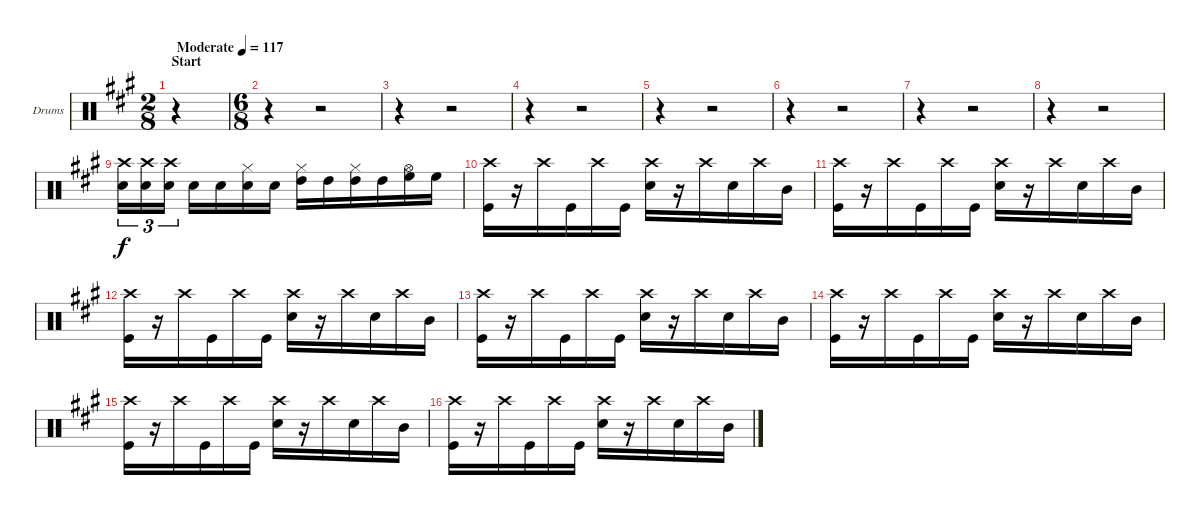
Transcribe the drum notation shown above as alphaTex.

\bracketExtendMode groupsimilarinstruments
\firstSystemTrackNameOrientation horizontal
\otherSystemsTrackNameOrientation horizontal
\track ("Drumkit" "Drums") {instrument percussion}
\staff {score}
\articulation defaults
\voice
\ts (2 8)
\beaming (8 3 3)
\section ("" "Start")
\tempo (117 "Moderate")
\clef neutral
\ks a
r.4{dy f} |
\ts (6 8)
\beaming (8 3 3)
r.4 r.2 |
r.4 r.2 |
r.4 r.2 |
r.4 r.2 |
r.4 r.2 |
r.4 r.2 |
r.4 r.2 |
("Crash high (hit)" "Snare (hit) 2").16{tu (3 2)} ("Crash high (hit)" "Snare (hit) 2").16{tu (3 2)} ("Crash high (hit)" "Snare (hit) 2").16{tu (3 2)} "Snare (hit) 2".16 "Snare (hit) 2".16 ("Hi-Hat (closed)" "Snare (hit) 2").16 "Snare (hit) 2".16 ("Hi-Hat (closed)" "High Tom (hit)").16 "High Tom (hit)".16 ("Hi-Hat (closed)" "High Tom (hit)").16 "High Tom (hit)".16 ("Hi-Hat (open)" "High Floor Tom (hit)").16 "High Floor Tom (hit)".16 |
("Crash high (hit)" "Kick (hit)").16 r.16 "Crash high (hit)".16 "Kick (hit)".16 "Crash high (hit)".16 "Kick (hit)".16 ("Crash high (hit)" "Snare (hit) 2").16 r.16 "Crash high (hit)".16 "Snare (hit) 2".16 "Crash high (hit)".16 "Mid Tom (hit)".16 |
("Crash high (hit)" "Kick (hit)").16 r.16 "Crash high (hit)".16 "Kick (hit)".16 "Crash high (hit)".16 "Kick (hit)".16 ("Crash high (hit)" "Snare (hit) 2").16 r.16 "Crash high (hit)".16 "Snare (hit) 2".16 "Crash high (hit)".16 "Mid Tom (hit)".16 |
("Crash high (hit)" "Kick (hit)").16 r.16 "Crash high (hit)".16 "Kick (hit)".16 "Crash high (hit)".16 "Kick (hit)".16 ("Crash high (hit)" "Snare (hit) 2").16 r.16 "Crash high (hit)".16 "Snare (hit) 2".16 "Crash high (hit)".16 "Mid Tom (hit)".16 |
("Crash high (hit)" "Kick (hit)").16 r.16 "Crash high (hit)".16 "Kick (hit)".16 "Crash high (hit)".16 "Kick (hit)".16 ("Crash high (hit)" "Snare (hit) 2").16 r.16 "Crash high (hit)".16 "Snare (hit) 2".16 "Crash high (hit)".16 "Mid Tom (hit)".16 |
("Crash high (hit)" "Kick (hit)").16 r.16 "Crash high (hit)".16 "Kick (hit)".16 "Crash high (hit)".16 "Kick (hit)".16 ("Crash high (hit)" "Snare (hit) 2").16 r.16 "Crash high (hit)".16 "Snare (hit) 2".16 "Crash high (hit)".16 "Mid Tom (hit)".16 |
("Crash high (hit)" "Kick (hit)").16 r.16 "Crash high (hit)".16 "Kick (hit)".16 "Crash high (hit)".16 "Kick (hit)".16 ("Crash high (hit)" "Snare (hit) 2").16 r.16 "Crash high (hit)".16 "Snare (hit) 2".16 "Crash high (hit)".16 "Mid Tom (hit)".16 |
("Crash high (hit)" "Kick (hit)").16 r.16 "Crash high (hit)".16 "Kick (hit)".16 "Crash high (hit)".16 "Kick (hit)".16 ("Crash high (hit)" "Snare (hit) 2").16 r.16 "Crash high (hit)".16 "Snare (hit) 2".16 "Crash high (hit)".16 "Mid Tom (hit)".16
\voice
\clef neutral
\ottava regular
\simile none
\ks a
r.4{dy mf} |
|
|
|
|
|
|
|
|
|
|
|
|
|
|
